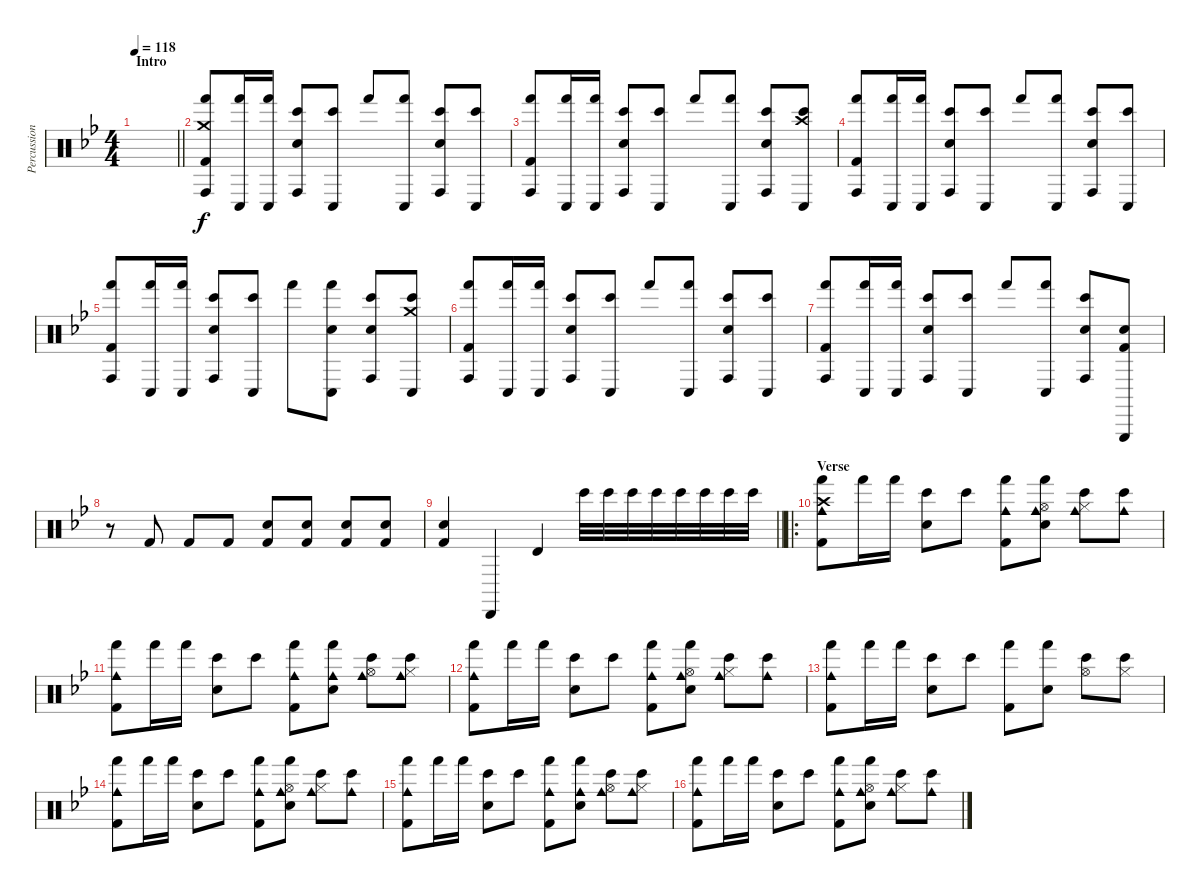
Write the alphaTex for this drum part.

\track ("Percussion" "Percussion") {instrument percussion}
\staff {score}
\articulation defaults
\ts (4 4)
\section ("" "Intro")
\tempo 118
\clef neutral
\barLineRight lightlight
\ks gminor
|
("Crash medium (hit)" "Hand (hit)" "Conga high (hit)" "Kick (hit) 2").8 ("Hand (hit)" "Conga low (hit)").16 ("Hand (hit)" "Conga low (hit)").16 ("Bongo High (hit)" "Electric Snare (hit)" "Conga high (hit)").8 ("Bongo High (hit)" "Conga low (hit)").8 "Hand (hit)".8 ("Hand (hit)" "Conga low (hit)").8 ("Bongo High (hit)" "Electric Snare (hit)" "Conga high (hit)").8 ("Bongo High (hit)" "Conga low (hit)").8 |
("Hand (hit)" "Conga high (hit)" "Kick (hit) 2").8 ("Hand (hit)" "Conga low (hit)").16 ("Hand (hit)" "Conga low (hit)").16 ("Bongo High (hit)" "Electric Snare (hit)" "Conga high (hit)").8 ("Bongo High (hit)" "Conga low (hit)").8 "Hand (hit)".8 ("Hand (hit)" "Conga low (hit)").8 ("Bongo High (hit)" "Electric Snare (hit)" "Conga high (hit)").8 ("Crash high (hit)" "Bongo High (hit)" "Conga low (hit)").8 |
("Hand (hit)" "Conga high (hit)" "Kick (hit) 2").8 ("Hand (hit)" "Conga low (hit)").16 ("Hand (hit)" "Conga low (hit)").16 ("Bongo High (hit)" "Electric Snare (hit)" "Conga high (hit)").8 ("Bongo High (hit)" "Conga low (hit)").8 "Hand (hit)".8 ("Hand (hit)" "Conga low (hit)").8 ("Bongo High (hit)" "Electric Snare (hit)" "Conga high (hit)").8 ("Bongo High (hit)" "Conga low (hit)").8 |
("Hand (hit)" "Conga high (hit)" "Kick (hit) 2").8 ("Hand (hit)" "Conga low (hit)").16 ("Hand (hit)" "Conga low (hit)").16 ("Bongo High (hit)" "Electric Snare (hit)" "Conga high (hit)").8 ("Bongo High (hit)" "Conga low (hit)").8 "Hand (hit)".8 ("Hand (hit)" "Electric Snare (hit)" "Conga low (hit)").8 ("Bongo High (hit)" "Electric Snare (hit)" "Conga high (hit)").8 ("Crash medium (hit)" "Bongo High (hit)" "Conga low (hit)").8 |
("Hand (hit)" "Conga high (hit)" "Kick (hit) 2").8 ("Hand (hit)" "Conga low (hit)").16 ("Hand (hit)" "Conga low (hit)").16 ("Bongo High (hit)" "Electric Snare (hit)" "Conga high (hit)").8 ("Bongo High (hit)" "Conga low (hit)").8 "Hand (hit)".8 ("Hand (hit)" "Conga low (hit)").8 ("Bongo High (hit)" "Electric Snare (hit)" "Conga high (hit)").8 ("Bongo High (hit)" "Conga low (hit)").8 |
("Hand (hit)" "Conga high (hit)" "Kick (hit) 2").8 ("Hand (hit)" "Conga low (hit)").16 ("Hand (hit)" "Conga low (hit)").16 ("Bongo High (hit)" "Electric Snare (hit)" "Conga high (hit)").8 ("Bongo High (hit)" "Conga low (hit)").8 "Hand (hit)".8 ("Hand (hit)" "Conga low (hit)").8 ("Bongo High (hit)" "Electric Snare (hit)" "Conga high (hit)").8 ("Triangle (hit)" "Electric Snare (hit)" "Kick (hit) 2").8 |
r.8 "Kick (hit) 2".8{volume 10} "Kick (hit) 2".8{volume 11} "Kick (hit) 2".8{volume 12} ("Electric Snare (hit)" "Kick (hit) 2").8{volume 13} ("Electric Snare (hit)" "Kick (hit) 2").8{volume 14} ("Electric Snare (hit)" "Kick (hit) 2").8{volume 15} ("Electric Snare (hit)" "Kick (hit) 2").8{volume 16} |
\barLineRight lightlight
("Electric Snare (hit)" "Kick (hit) 2").4{volume 16} "Cabasa (hit)".4 "Timbale high (hit)".4 "Bongo High (hit)".32 "Bongo High (hit)".32 "Bongo High (hit)".32 "Bongo High (hit)".32 "Bongo High (hit)".32 "Bongo High (hit)".32 "Bongo High (hit)".32 "Bongo High (hit)".32 |
\ro
\section ("" "Verse")
("Cowbell medium (hit)" "Hand (hit)" "Crash high (hit)" "Kick (hit) 2").8 "Hand (hit)".16 "Hand (hit)".16 ("Bongo High (hit)" "Electric Snare (hit)").8 "Bongo High (hit)".8 ("Cowbell medium (hit)" "Hand (hit)" "Kick (hit) 2").8 ("Cowbell medium (hit)" "Hand (hit)" "Electric Snare (hit)" "Hi-Hat (open)").8 ("Cowbell medium (hit)" "Bongo High (hit)" "Hi-Hat (closed)").8 ("Cowbell medium (hit)" "Bongo High (hit)").8 |
("Cowbell medium (hit)" "Hand (hit)" "Kick (hit) 2").8 "Hand (hit)".16 "Hand (hit)".16 ("Bongo High (hit)" "Electric Snare (hit)").8 "Bongo High (hit)".8 ("Cowbell medium (hit)" "Hand (hit)" "Kick (hit) 2").8 ("Cowbell medium (hit)" "Hand (hit)" "Electric Snare (hit)").8 ("Cowbell medium (hit)" "Bongo High (hit)" "Hi-Hat (open)").8 ("Cowbell medium (hit)" "Bongo High (hit)" "Hi-Hat (closed)").8 |
("Cowbell medium (hit)" "Hand (hit)" "Kick (hit) 2").8 "Hand (hit)".16 "Hand (hit)".16 ("Bongo High (hit)" "Electric Snare (hit)").8 "Bongo High (hit)".8 ("Cowbell medium (hit)" "Hand (hit)" "Kick (hit) 2").8 ("Cowbell medium (hit)" "Hand (hit)" "Electric Snare (hit)" "Hi-Hat (open)").8 ("Cowbell medium (hit)" "Bongo High (hit)" "Hi-Hat (closed)").8 ("Cowbell medium (hit)" "Bongo High (hit)").8 |
("Cowbell medium (hit)" "Hand (hit)" "Kick (hit) 2").8 "Hand (hit)".16 "Hand (hit)".16 ("Bongo High (hit)" "Electric Snare (hit)").8 "Bongo High (hit)".8 ("Hand (hit)" "Kick (hit) 2").8 ("Hand (hit)" "Electric Snare (hit)").8 ("Bongo High (hit)" "Hi-Hat (open)").8 ("Bongo High (hit)" "Hi-Hat (closed)").8 |
("Cowbell medium (hit)" "Hand (hit)" "Kick (hit) 2").8 "Hand (hit)".16 "Hand (hit)".16 ("Bongo High (hit)" "Electric Snare (hit)").8 "Bongo High (hit)".8 ("Cowbell medium (hit)" "Hand (hit)" "Kick (hit) 2").8 ("Cowbell medium (hit)" "Hand (hit)" "Electric Snare (hit)" "Hi-Hat (open)").8 ("Cowbell medium (hit)" "Bongo High (hit)" "Hi-Hat (closed)").8 ("Cowbell medium (hit)" "Bongo High (hit)").8 |
("Cowbell medium (hit)" "Hand (hit)" "Kick (hit) 2").8 "Hand (hit)".16 "Hand (hit)".16 ("Bongo High (hit)" "Electric Snare (hit)").8 "Bongo High (hit)".8 ("Cowbell medium (hit)" "Hand (hit)" "Kick (hit) 2").8 ("Cowbell medium (hit)" "Hand (hit)" "Electric Snare (hit)").8 ("Cowbell medium (hit)" "Bongo High (hit)" "Hi-Hat (open)").8 ("Cowbell medium (hit)" "Bongo High (hit)" "Hi-Hat (closed)").8 |
("Cowbell medium (hit)" "Hand (hit)" "Kick (hit) 2").8 "Hand (hit)".16 "Hand (hit)".16 ("Bongo High (hit)" "Electric Snare (hit)").8 "Bongo High (hit)".8 ("Cowbell medium (hit)" "Hand (hit)" "Kick (hit) 2").8 ("Cowbell medium (hit)" "Hand (hit)" "Electric Snare (hit)" "Hi-Hat (open)").8 ("Cowbell medium (hit)" "Bongo High (hit)" "Hi-Hat (closed)").8 ("Cowbell medium (hit)" "Bongo High (hit)").8
